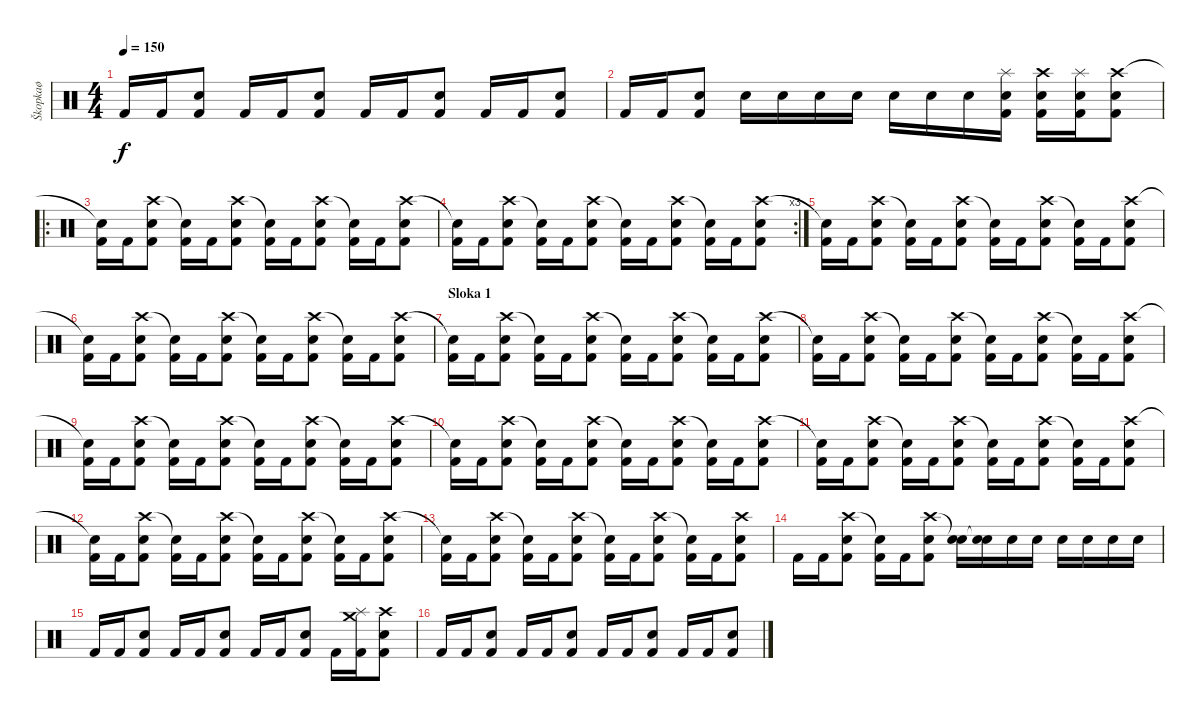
\track ("Škopkaø" "Škopkaø") {instrument percussion}
\staff {score}
\articulation defaults
\ts (4 4)
\tempo 150
\clef neutral
\ks c "Kick (hit) 2".16{dy f} "Kick (hit) 2".16
("Electric Snare (hit)" "Kick (hit) 2").8 "Kick (hit) 2".16 "Kick (hit) 2".16 ("Electric Snare (hit)" "Kick (hit) 2").8 "Kick (hit) 2".16 "Kick (hit) 2".16 ("Electric Snare (hit)" "Kick (hit) 2").8 "Kick (hit) 2".16 "Kick (hit) 2".16 ("Electric Snare (hit)" "Kick (hit) 2").8 |
"Kick (hit) 2".16 "Kick (hit) 2".16 ("Electric Snare (hit)" "Kick (hit) 2").8 "Electric Snare (hit)".16 "Electric Snare (hit)".16 "Electric Snare (hit)".16 "Electric Snare (hit)".16 "Electric Snare (hit)".16 "Electric Snare (hit)".16 "Electric Snare (hit)".16 ("Splash (hit)" "Electric Snare (hit)" "Kick (hit) 2").16 ("Crash high (hit)" "Electric Snare (hit)" "Kick (hit) 2").16 ("Splash (hit)" "Electric Snare (hit)" "Kick (hit) 2").16 ("Crash high (hit)" "Electric Snare (hit)" "Kick (hit) 2").8 |
\ro
("Snare (hit)"{t} "Kick (hit) 2").16 "Kick (hit) 2".16 ("Crash high (hit)" "Electric Snare (hit)" "Kick (hit) 2").8 ("Snare (hit)"{t} "Kick (hit) 2").16 "Kick (hit) 2".16 ("Crash high (hit)" "Electric Snare (hit)" "Kick (hit) 2").8 ("Snare (hit)"{t} "Kick (hit) 2").16 "Kick (hit) 2".16 ("Crash high (hit)" "Electric Snare (hit)" "Kick (hit) 2").8 ("Snare (hit)"{t} "Kick (hit) 2").16 "Kick (hit) 2".16 ("Crash high (hit)" "Electric Snare (hit)" "Kick (hit) 2").8 |
\rc 3
("Snare (hit)"{t} "Kick (hit) 2").16 "Kick (hit) 2".16 ("Crash high (hit)" "Electric Snare (hit)" "Kick (hit) 2").8 ("Snare (hit)"{t} "Kick (hit) 2").16 "Kick (hit) 2".16 ("Crash high (hit)" "Electric Snare (hit)" "Kick (hit) 2").8 ("Snare (hit)"{t} "Kick (hit) 2").16 "Kick (hit) 2".16 ("Crash high (hit)" "Electric Snare (hit)" "Kick (hit) 2").8 ("Snare (hit)"{t} "Kick (hit) 2").16 "Kick (hit) 2".16 ("Crash high (hit)" "Electric Snare (hit)" "Kick (hit) 2").8 |
("Snare (hit)"{t} "Kick (hit) 2").16 "Kick (hit) 2".16 ("Crash high (hit)" "Electric Snare (hit)" "Kick (hit) 2").8 ("Snare (hit)"{t} "Kick (hit) 2").16 "Kick (hit) 2".16 ("Crash high (hit)" "Electric Snare (hit)" "Kick (hit) 2").8 ("Snare (hit)"{t} "Kick (hit) 2").16 "Kick (hit) 2".16 ("Crash high (hit)" "Electric Snare (hit)" "Kick (hit) 2").8 ("Snare (hit)"{t} "Kick (hit) 2").16 "Kick (hit) 2".16 ("Crash high (hit)" "Electric Snare (hit)" "Kick (hit) 2").8 |
("Snare (hit)"{t} "Kick (hit) 2").16 "Kick (hit) 2".16 ("Crash high (hit)" "Electric Snare (hit)" "Kick (hit) 2").8 ("Snare (hit)"{t} "Kick (hit) 2").16 "Kick (hit) 2".16 ("Crash high (hit)" "Electric Snare (hit)" "Kick (hit) 2").8 ("Snare (hit)"{t} "Kick (hit) 2").16 "Kick (hit) 2".16 ("Crash high (hit)" "Electric Snare (hit)" "Kick (hit) 2").8 ("Snare (hit)"{t} "Kick (hit) 2").16 "Kick (hit) 2".16 ("Crash high (hit)" "Electric Snare (hit)" "Kick (hit) 2").8 |
\section ("" "Sloka 1")
("Snare (hit)"{t} "Kick (hit) 2").16 "Kick (hit) 2".16 ("Crash high (hit)" "Electric Snare (hit)" "Kick (hit) 2").8 ("Snare (hit)"{t} "Kick (hit) 2").16 "Kick (hit) 2".16 ("Crash high (hit)" "Electric Snare (hit)" "Kick (hit) 2").8 ("Snare (hit)"{t} "Kick (hit) 2").16 "Kick (hit) 2".16 ("Crash high (hit)" "Electric Snare (hit)" "Kick (hit) 2").8 ("Snare (hit)"{t} "Kick (hit) 2").16 "Kick (hit) 2".16 ("Crash high (hit)" "Electric Snare (hit)" "Kick (hit) 2").8 |
("Snare (hit)"{t} "Kick (hit) 2").16 "Kick (hit) 2".16 ("Crash high (hit)" "Electric Snare (hit)" "Kick (hit) 2").8 ("Snare (hit)"{t} "Kick (hit) 2").16 "Kick (hit) 2".16 ("Crash high (hit)" "Electric Snare (hit)" "Kick (hit) 2").8 ("Snare (hit)"{t} "Kick (hit) 2").16 "Kick (hit) 2".16 ("Crash high (hit)" "Electric Snare (hit)" "Kick (hit) 2").8 ("Snare (hit)"{t} "Kick (hit) 2").16 "Kick (hit) 2".16 ("Crash high (hit)" "Electric Snare (hit)" "Kick (hit) 2").8 |
("Snare (hit)"{t} "Kick (hit) 2").16 "Kick (hit) 2".16 ("Crash high (hit)" "Electric Snare (hit)" "Kick (hit) 2").8 ("Snare (hit)"{t} "Kick (hit) 2").16 "Kick (hit) 2".16 ("Crash high (hit)" "Electric Snare (hit)" "Kick (hit) 2").8 ("Snare (hit)"{t} "Kick (hit) 2").16 "Kick (hit) 2".16 ("Crash high (hit)" "Electric Snare (hit)" "Kick (hit) 2").8 ("Snare (hit)"{t} "Kick (hit) 2").16 "Kick (hit) 2".16 ("Crash high (hit)" "Electric Snare (hit)" "Kick (hit) 2").8 |
("Snare (hit)"{t} "Kick (hit) 2").16 "Kick (hit) 2".16 ("Crash high (hit)" "Electric Snare (hit)" "Kick (hit) 2").8 ("Snare (hit)"{t} "Kick (hit) 2").16 "Kick (hit) 2".16 ("Crash high (hit)" "Electric Snare (hit)" "Kick (hit) 2").8 ("Snare (hit)"{t} "Kick (hit) 2").16 "Kick (hit) 2".16 ("Crash high (hit)" "Electric Snare (hit)" "Kick (hit) 2").8 ("Snare (hit)"{t} "Kick (hit) 2").16 "Kick (hit) 2".16 ("Crash high (hit)" "Electric Snare (hit)" "Kick (hit) 2").8 |
("Snare (hit)"{t} "Kick (hit) 2").16 "Kick (hit) 2".16 ("Crash high (hit)" "Electric Snare (hit)" "Kick (hit) 2").8 ("Snare (hit)"{t} "Kick (hit) 2").16 "Kick (hit) 2".16 ("Crash high (hit)" "Electric Snare (hit)" "Kick (hit) 2").8 ("Snare (hit)"{t} "Kick (hit) 2").16 "Kick (hit) 2".16 ("Crash high (hit)" "Electric Snare (hit)" "Kick (hit) 2").8 ("Snare (hit)"{t} "Kick (hit) 2").16 "Kick (hit) 2".16 ("Crash high (hit)" "Electric Snare (hit)" "Kick (hit) 2").8 |
("Snare (hit)"{t} "Kick (hit) 2").16 "Kick (hit) 2".16 ("Crash high (hit)" "Electric Snare (hit)" "Kick (hit) 2").8 ("Snare (hit)"{t} "Kick (hit) 2").16 "Kick (hit) 2".16 ("Crash high (hit)" "Electric Snare (hit)" "Kick (hit) 2").8 ("Snare (hit)"{t} "Kick (hit) 2").16 "Kick (hit) 2".16 ("Crash high (hit)" "Electric Snare (hit)" "Kick (hit) 2").8 ("Snare (hit)"{t} "Kick (hit) 2").16 "Kick (hit) 2".16 ("Crash high (hit)" "Electric Snare (hit)" "Kick (hit) 2").8 |
("Snare (hit)"{t} "Kick (hit) 2").16 "Kick (hit) 2".16 ("Crash high (hit)" "Electric Snare (hit)" "Kick (hit) 2").8 ("Snare (hit)"{t} "Kick (hit) 2").16 "Kick (hit) 2".16 ("Crash high (hit)" "Electric Snare (hit)" "Kick (hit) 2").8 ("Snare (hit)"{t} "Kick (hit) 2").16 "Kick (hit) 2".16 ("Crash high (hit)" "Electric Snare (hit)" "Kick (hit) 2").8 ("Snare (hit)"{t} "Kick (hit) 2").16 "Kick (hit) 2".16 ("Crash high (hit)" "Electric Snare (hit)" "Kick (hit) 2").8 |
"Kick (hit) 2".16 "Kick (hit) 2".16 ("Crash high (hit)" "Electric Snare (hit)" "Kick (hit) 2").8 ("Snare (hit)"{t} "Kick (hit) 2").16 "Kick (hit) 2".16 ("Crash high (hit)" "Electric Snare (hit)" "Kick (hit) 2").8 ("Snare (hit)"{t} "Electric Snare (hit)").16 ("Snare (hit)"{t} "Electric Snare (hit)").16 "Electric Snare (hit)".16 "Electric Snare (hit)".16 "Electric Snare (hit)".16 "Electric Snare (hit)".16 "Electric Snare (hit)".16 "Electric Snare (hit)".16 |
"Kick (hit) 2".16 "Kick (hit) 2".16 ("Electric Snare (hit)" "Kick (hit) 2").8 "Kick (hit) 2".16 "Kick (hit) 2".16 ("Electric Snare (hit)" "Kick (hit) 2").8 "Kick (hit) 2".16 "Kick (hit) 2".16 ("Electric Snare (hit)" "Kick (hit) 2").8 "Kick (hit) 2".16 ("Crash medium (hit)" "Splash (hit)" "Kick (hit) 2").16 ("Crash high (hit)" "Electric Snare (hit)" "Kick (hit) 2").8 |
"Kick (hit) 2".16 "Kick (hit) 2".16 ("Electric Snare (hit)" "Kick (hit) 2").8 "Kick (hit) 2".16 "Kick (hit) 2".16 ("Electric Snare (hit)" "Kick (hit) 2").8 "Kick (hit) 2".16 "Kick (hit) 2".16 ("Electric Snare (hit)" "Kick (hit) 2").8 "Kick (hit) 2".16 "Kick (hit) 2".16 ("Electric Snare (hit)" "Kick (hit) 2").8
